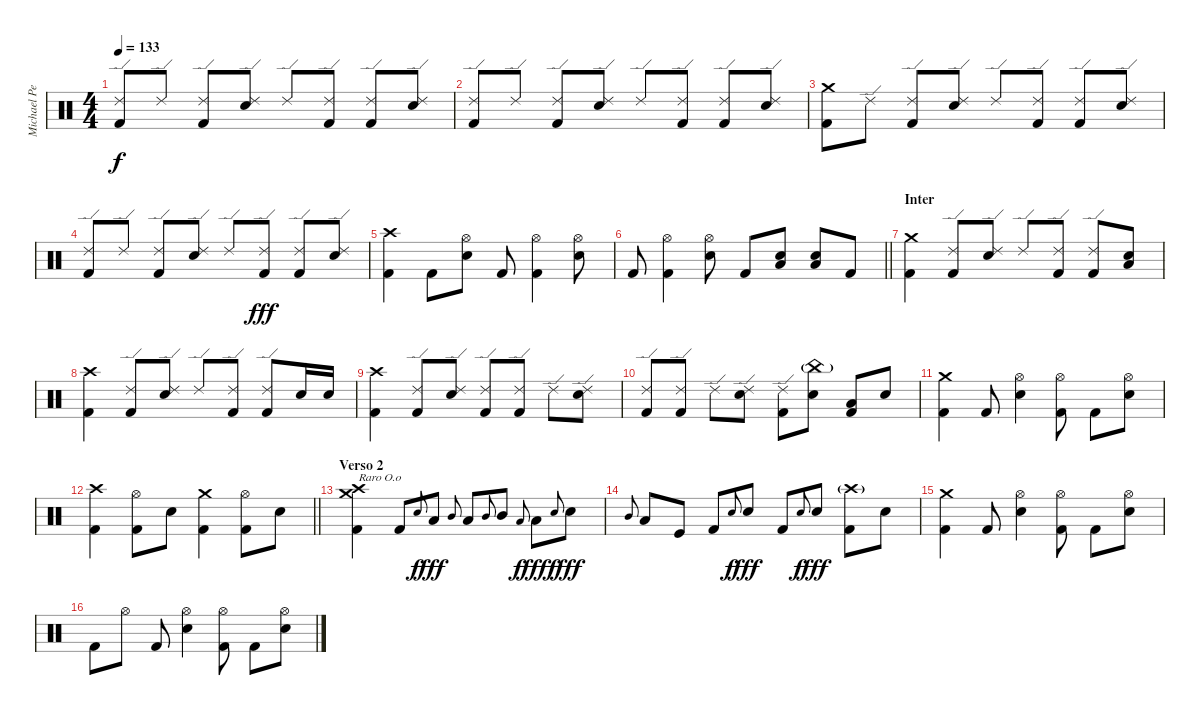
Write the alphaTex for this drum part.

\track ("Michael Pedicone [Drums]" "Michael Pe") {instrument percussion}
\staff
\articulation defaults
\ts (4 4)
\tempo 133
\clef neutral
\ks c
("Ride (edge) 2" "Kick (hit) 2").8{dy f} "Ride (edge) 2".8 ("Ride (edge) 2" "Kick (hit) 2").8 ("Ride (edge) 2" "Electric Snare (hit)").8 "Ride (edge) 2".8 ("Ride (edge) 2" "Kick (hit) 2").8 ("Ride (edge) 2" "Kick (hit) 2").8 ("Ride (edge) 2" "Electric Snare (hit)").8 |
("Ride (edge) 2" "Kick (hit) 2").8 "Ride (edge) 2".8 ("Ride (edge) 2" "Kick (hit) 2").8 ("Ride (edge) 2" "Electric Snare (hit)").8 "Ride (edge) 2".8 ("Ride (edge) 2" "Kick (hit) 2").8 ("Ride (edge) 2" "Kick (hit) 2").8 ("Ride (edge) 2" "Electric Snare (hit)").8 |
("Crash medium (hit)" "Kick (hit) 2").8 "Ride (edge) 2".8 ("Ride (edge) 2" "Kick (hit) 2").8 ("Ride (edge) 2" "Electric Snare (hit)").8 "Ride (edge) 2".8 ("Ride (edge) 2" "Kick (hit) 2").8 ("Ride (edge) 2" "Kick (hit) 2").8 ("Ride (edge) 2" "Electric Snare (hit)").8 |
("Ride (edge) 2" "Kick (hit) 2").8 "Ride (edge) 2".8 ("Ride (edge) 2" "Kick (hit) 2").8 ("Ride (edge) 2" "Electric Snare (hit)").8 "Ride (edge) 2".8 ("Ride (edge) 2" "Kick (hit) 2").8{dy fff} ("Ride (edge) 2" "Kick (hit) 2").8 ("Ride (edge) 2" "Electric Snare (hit)").8 |
("Crash high (hit)" "Kick (hit) 2").4 "Kick (hit) 2".8 ("Hi-Hat (open)" "Electric Snare (hit)").8 "Kick (hit) 2".8 ("Hi-Hat (open)" "Kick (hit) 2").4 ("Hi-Hat (open)" "Electric Snare (hit)").8 |
\barLineRight lightlight "Kick (hit) 2".8
("Hi-Hat (open)" "Kick (hit) 2").4 ("Hi-Hat (open)" "Electric Snare (hit)").8 "Kick (hit) 2".8 ("Low Floor Tom (hit)" "Electric Snare (hit)").8 ("Low Floor Tom (hit)" "Electric Snare (hit)").8 "Kick (hit) 2".8 |
\section ("" "Inter")
("Crash medium (hit)" "Kick (hit) 2").4 ("Ride (edge) 2" "Kick (hit) 2").8 ("Ride (edge) 2" "Electric Snare (hit)").8 "Ride (edge) 2".8 ("Ride (edge) 2" "Kick (hit) 2").8 ("Ride (edge) 2" "Kick (hit) 2").8 ("Low Floor Tom (hit)" "Electric Snare (hit)").8 |
("Crash high (hit)" "Kick (hit) 2").4 ("Ride (edge) 2" "Kick (hit) 2").8 ("Ride (edge) 2" "Electric Snare (hit)").8 "Ride (edge) 2".8 ("Ride (edge) 2" "Kick (hit) 2").8 ("Ride (edge) 2" "Kick (hit) 2").8 "Electric Snare (hit)".16 "Electric Snare (hit)".16 |
("Crash high (hit)" "Kick (hit) 2").4 ("Ride (edge) 2" "Kick (hit) 2").8 ("Ride (edge) 2" "Electric Snare (hit)").8 ("Ride (edge) 2" "Kick (hit) 2").8 ("Ride (edge) 2" "Kick (hit) 2").8 "Ride (edge) 2".8 ("Ride (edge) 2" "Electric Snare (hit)").8 |
("Ride (edge) 2" "Kick (hit) 2").8 ("Ride (edge) 2" "Kick (hit) 2").8 "Ride (edge) 2".8 ("Ride (edge) 2" "Electric Snare (hit)").8 ("Ride (edge) 2" "Kick (hit) 2").8 ("China (hit)"{g} "Electric Snare (hit)").8 ("Low Floor Tom (hit)" "Kick (hit) 2").8 "Electric Snare (hit)".8 |
("Crash medium (hit)" "Kick (hit) 2").4 "Kick (hit) 2".8 ("Hi-Hat (open)" "Electric Snare (hit)").4 ("Hi-Hat (open)" "Kick (hit) 2").8 "Kick (hit) 2".8 ("Hi-Hat (open)" "Electric Snare (hit)").8 |
\barLineRight lightlight
("Crash high (hit)" "Kick (hit) 2").4 ("Hi-Hat (open)" "Kick (hit) 2").8 "Electric Snare (hit)".8 ("Crash medium (hit)" "Kick (hit) 2").4 ("Hi-Hat (open)" "Kick (hit) 2").8 "Electric Snare (hit)".8 |
\section ("" "Verso 2")
("Crash high (hit)" "Crash medium (hit)" "Kick (hit) 2").4{txt "Raro O.o"} "Kick (hit) 2".8 "Electric Snare (hit)".8{gr onbeat dy f} "Low Floor Tom (hit)".8{dy fff} "Mid Tom (hit)".8{gr onbeat} "Low Tom (hit)".8 "Mid Tom (hit)".8{gr onbeat} "Mid Tom (hit)".8 "Low Floor Tom (hit)".8{gr onbeat dy f} "Low Floor Tom (hit)".8{dy fff} "Electric Snare (hit)".8{gr onbeat dy f} "Electric Snare (hit)".8{dy fff} |
"Mid Tom (hit)".8{gr onbeat} "Low Tom (hit)".8 "Kick (hit)".8 "Kick (hit) 2".8 "Electric Snare (hit)".8{gr onbeat dy f} "Electric Snare (hit)".8{dy fff} "Kick (hit) 2".8 "Electric Snare (hit)".8{gr onbeat dy f} "Electric Snare (hit)".8{dy fff} ("Crash high (hit)"{g} "Kick (hit) 2").8 "Electric Snare (hit)".8 |
("Crash medium (hit)" "Kick (hit) 2").4 "Kick (hit) 2".8 ("Hi-Hat (open)" "Electric Snare (hit)").4 ("Hi-Hat (open)" "Kick (hit) 2").8 "Kick (hit) 2".8 ("Hi-Hat (open)" "Electric Snare (hit)").8 |
"Kick (hit) 2".8 "Hi-Hat (open)".8 "Kick (hit) 2".8 ("Hi-Hat (open)" "Electric Snare (hit)").4 ("Hi-Hat (open)" "Kick (hit) 2").8 "Kick (hit) 2".8 ("Hi-Hat (open)" "Electric Snare (hit)").8
